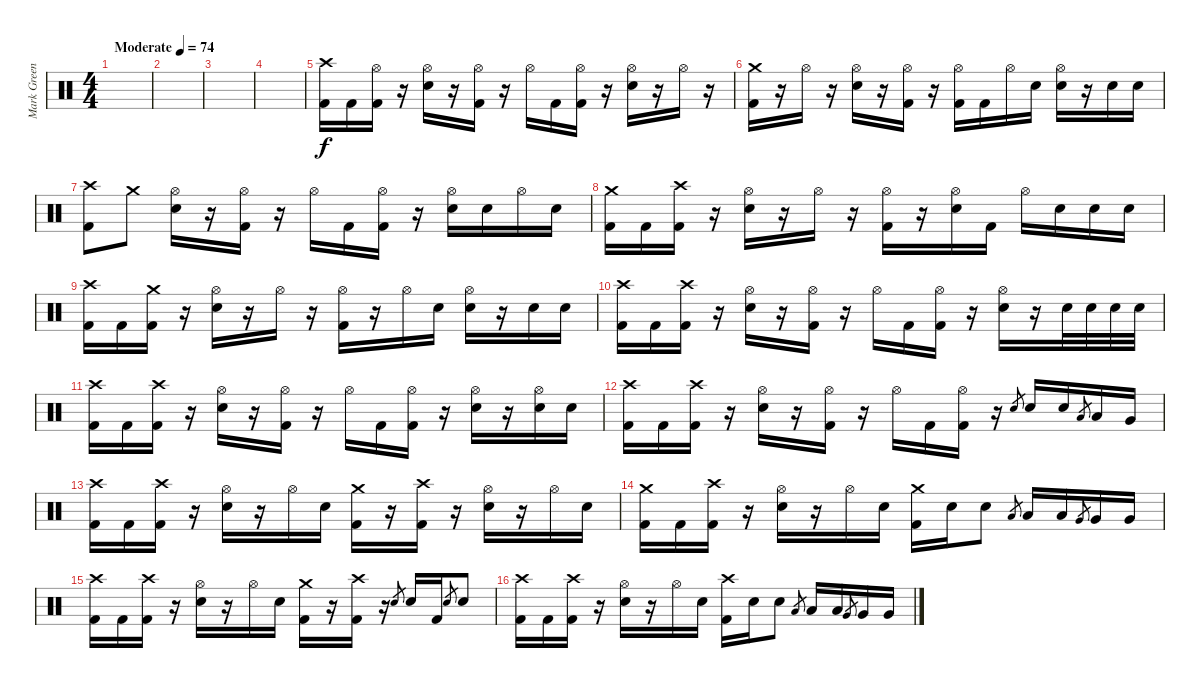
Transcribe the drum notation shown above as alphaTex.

\track ("Mark Greening" "Mark Green") {instrument percussion}
\staff {score}
\articulation defaults
\ts (4 4)
\tempo (74 "Moderate")
\clef neutral
\ks c
|
|
|
|
("Crash high (hit)" "Kick (hit) 2").16 "Kick (hit) 2".16 ("Hi-Hat (open)" "Kick (hit) 2").16 r.16 ("Hi-Hat (open)" "Snare (hit) 2").16 r.16 ("Hi-Hat (open)" "Kick (hit) 2").16 r.16 "Hi-Hat (open)".16 "Kick (hit) 2".16 ("Hi-Hat (open)" "Kick (hit) 2").16 r.16 ("Hi-Hat (open)" "Snare (hit) 2").16 r.16 "Hi-Hat (open)".16 r.16 |
("Crash medium (hit)" "Kick (hit) 2").16 r.16 "Hi-Hat (open)".16 r.16 ("Hi-Hat (open)" "Snare (hit) 2").16 r.16 ("Hi-Hat (open)" "Kick (hit) 2").16 r.16 ("Hi-Hat (open)" "Kick (hit) 2").16 "Kick (hit) 2".16 "Hi-Hat (open)".16 "Snare (hit) 2".16 ("Hi-Hat (open)" "Snare (hit) 2").16 r.16 "Snare (hit) 2".16 "Snare (hit) 2".16 |
("Crash high (hit)" "Kick (hit) 2").8 "Crash medium (hit)".8 ("Hi-Hat (open)" "Snare (hit) 2").16 r.16 ("Hi-Hat (open)" "Kick (hit) 2").16 r.16 "Hi-Hat (open)".16 "Kick (hit) 2".16 ("Hi-Hat (open)" "Kick (hit) 2").16 r.16 ("Hi-Hat (open)" "Snare (hit) 2").16 "Snare (hit) 2".16 "Hi-Hat (open)".16 "Snare (hit) 2".16 |
("Crash medium (hit)" "Kick (hit) 2").16 "Kick (hit) 2".16 ("Crash high (hit)" "Kick (hit) 2").16 r.16 ("Hi-Hat (open)" "Snare (hit) 2").16 r.16 "Hi-Hat (open)".16 r.16 ("Hi-Hat (open)" "Kick (hit) 2").16 r.16 ("Hi-Hat (open)" "Snare (hit) 2").16 "Kick (hit) 2".16 "Hi-Hat (open)".16 "Snare (hit) 2".16 "Snare (hit) 2".16 "Snare (hit) 2".16 |
("Crash high (hit)" "Kick (hit) 2").16 "Kick (hit) 2".16 ("Crash medium (hit)" "Kick (hit) 2").16 r.16 ("Hi-Hat (open)" "Snare (hit) 2").16 r.16 "Hi-Hat (open)".16 r.16 ("Hi-Hat (open)" "Kick (hit) 2").16 r.16 "Hi-Hat (open)".16 "Snare (hit) 2".16 ("Hi-Hat (open)" "Snare (hit) 2").16 r.16 "Snare (hit) 2".16 "Snare (hit) 2".16 |
("Crash high (hit)" "Kick (hit) 2").16 "Kick (hit) 2".16 ("Crash high (hit)" "Kick (hit) 2").16 r.16 ("Hi-Hat (open)" "Snare (hit) 2").16 r.16 ("Hi-Hat (open)" "Kick (hit) 2").16 r.16 "Hi-Hat (open)".16 "Kick (hit) 2".16 ("Hi-Hat (open)" "Kick (hit) 2").16 r.16 ("Hi-Hat (open)" "Snare (hit) 2").16 r.16 "Snare (hit) 2".32 "Snare (hit) 2".32 "Snare (hit) 2".32 "Snare (hit) 2".32 |
("Crash high (hit)" "Kick (hit) 2").16 "Kick (hit) 2".16 ("Crash high (hit)" "Kick (hit) 2").16 r.16 ("Hi-Hat (open)" "Snare (hit) 2").16 r.16 ("Hi-Hat (open)" "Kick (hit) 2").16 r.16 "Hi-Hat (open)".16 "Kick (hit) 2".16 ("Hi-Hat (open)" "Kick (hit) 2").16 r.16 ("Hi-Hat (open)" "Snare (hit) 2").16 r.16 ("Hi-Hat (open)" "Snare (hit) 2").16 "Snare (hit) 2".16 |
("Crash high (hit)" "Kick (hit) 2").16 "Kick (hit) 2".16 ("Crash high (hit)" "Kick (hit) 2").16 r.16 ("Hi-Hat (open)" "Snare (hit) 2").16 r.16 ("Hi-Hat (open)" "Kick (hit) 2").16 r.16 "Hi-Hat (open)".16 "Kick (hit) 2".16 ("Hi-Hat (open)" "Kick (hit) 2").16 r.16 "Snare (hit) 2".8{gr} "Snare (hit) 2".16 "Snare (hit) 2".16 "Low Tom (hit)".8{gr} "Low Tom (hit)".16 "Very Low Tom (hit)".16 |
("Crash high (hit)" "Kick (hit) 2").16 "Kick (hit) 2".16 ("Crash high (hit)" "Kick (hit) 2").16 r.16 ("Hi-Hat (open)" "Snare (hit) 2").16 r.16 "Hi-Hat (open)".16 "Snare (hit) 2".16 ("Crash medium (hit)" "Kick (hit) 2").16 r.16 ("Crash high (hit)" "Kick (hit) 2").16 r.16 ("Hi-Hat (open)" "Snare (hit) 2").16 r.16 "Hi-Hat (open)".16 "Snare (hit) 2".16 |
("Crash medium (hit)" "Kick (hit) 2").16 "Kick (hit) 2".16 ("Crash high (hit)" "Kick (hit) 2").16 r.16 ("Hi-Hat (open)" "Snare (hit) 2").16 r.16 "Hi-Hat (open)".16 "Snare (hit) 2".16 ("Crash medium (hit)" "Kick (hit) 2").16 "Snare (hit) 2".16 "Snare (hit) 2".8 "Low Tom (hit)".8{gr} "Low Tom (hit)".16 "Low Tom (hit)".16 "Very Low Tom (hit)".8{gr} "Very Low Tom (hit)".16 "Very Low Tom (hit)".16 |
("Crash high (hit)" "Kick (hit) 2").16 "Kick (hit) 2".16 ("Crash high (hit)" "Kick (hit) 2").16 r.16 ("Hi-Hat (open)" "Snare (hit) 2").16 r.16 "Hi-Hat (open)".16 "Snare (hit) 2".16 ("Crash medium (hit)" "Kick (hit) 2").16 r.16 ("Crash high (hit)" "Kick (hit) 2").16 r.16 "Snare (hit) 2".8{gr} "Snare (hit) 2".16 "Kick (hit) 2".16 "Snare (hit) 2".8{gr} "Snare (hit) 2".8 |
("Crash high (hit)" "Kick (hit) 2").16 "Kick (hit) 2".16 ("Crash high (hit)" "Kick (hit) 2").16 r.16 ("Hi-Hat (open)" "Snare (hit) 2").16 r.16 "Hi-Hat (open)".16 "Snare (hit) 2".16 ("Crash high (hit)" "Kick (hit) 2").16 "Snare (hit) 2".16 "Snare (hit) 2".8 "Low Tom (hit)".8{gr} "Low Tom (hit)".16 "Low Tom (hit)".16 "Very Low Tom (hit)".8{gr} "Very Low Tom (hit)".16 "Very Low Tom (hit)".16
